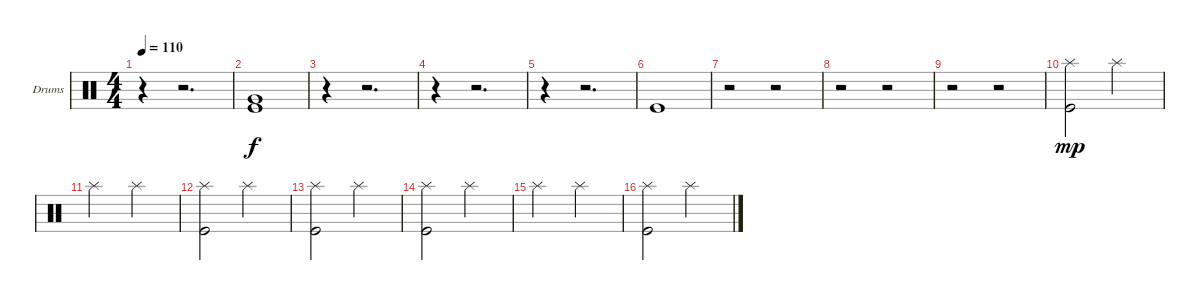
\defaultSystemsLayout 4
\bracketExtendMode groupsimilarinstruments
\firstSystemTrackNameOrientation horizontal
\otherSystemsTrackNameOrientation horizontal
\track ("Drumkit" "Drums") {instrument percussion}
\staff {score}
\articulation defaults
\ts (4 4)
\tempo 110
\clef neutral
\scale
0.333333
\ks c
r.4{dy f} r.2{d} |
\scale
0.333333 ("Very Low Tom (hit)" "Kick (hit)").1 |
\scale
0.333333 r.4 r.2{d} |
\scale
0.333333 r.4 r.2{d} |
\scale
0.333333 r.4 r.2{d} |
\scale
0.333333 "Kick (hit)".1 |
\scale
0.333333 r.2 r.2 |
\scale
0.333333 r.2 r.2 |
\scale
0.333333 r.2 r.2 |
\scale
0.333333 ("Splash (hit)" "Kick (hit)").2{dy mp} "Splash (hit)".2 |
\scale
0.333333 "Splash (hit)".2 "Splash (hit)".2 |
\scale
0.333333 ("Splash (hit)" "Kick (hit)").2 "Splash (hit)".2 |
\scale
0.333333 ("Splash (hit)" "Kick (hit)").2 "Splash (hit)".2 |
\scale
0.333333 ("Splash (hit)" "Kick (hit)").2 "Splash (hit)".2 |
\scale
0.333333 "Splash (hit)".2 "Splash (hit)".2 |
\scale
0.333333 ("Splash (hit)" "Kick (hit)").2 "Splash (hit)".2
